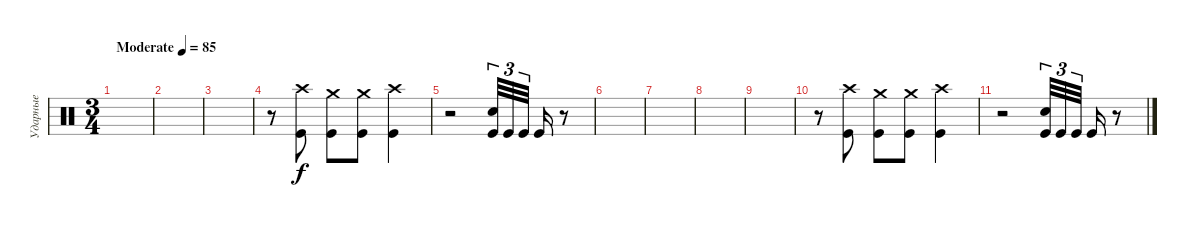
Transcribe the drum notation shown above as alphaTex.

\track ("Ударные" "Ударные") {instrument percussion}
\staff {score}
\articulation defaults
\ts (3 4)
\tempo (85 "Moderate")
\clef neutral
\ks c
|
|
|
r.8 ("Crash high (hit)" "Kick (hit)").8 ("Crash medium (hit)" "Kick (hit)").8 ("Crash medium (hit)" "Kick (hit)").8 ("Crash high (hit)" "Kick (hit)").4 |
r.2 ("Snare (hit) 2" "Kick (hit)").32{tu (3 2)} "Kick (hit)".32{tu (3 2)} "Kick (hit)".32{tu (3 2) beam splitsecondary} "Kick (hit)".16 r.8 |
|
|
|
|
r.8 ("Crash high (hit)" "Kick (hit)").8 ("Crash medium (hit)" "Kick (hit)").8 ("Crash medium (hit)" "Kick (hit)").8 ("Crash high (hit)" "Kick (hit)").4 |
r.2 ("Snare (hit) 2" "Kick (hit)").32{tu (3 2)} "Kick (hit)".32{tu (3 2)} "Kick (hit)".32{tu (3 2) beam splitsecondary} "Kick (hit)".16 r.8
